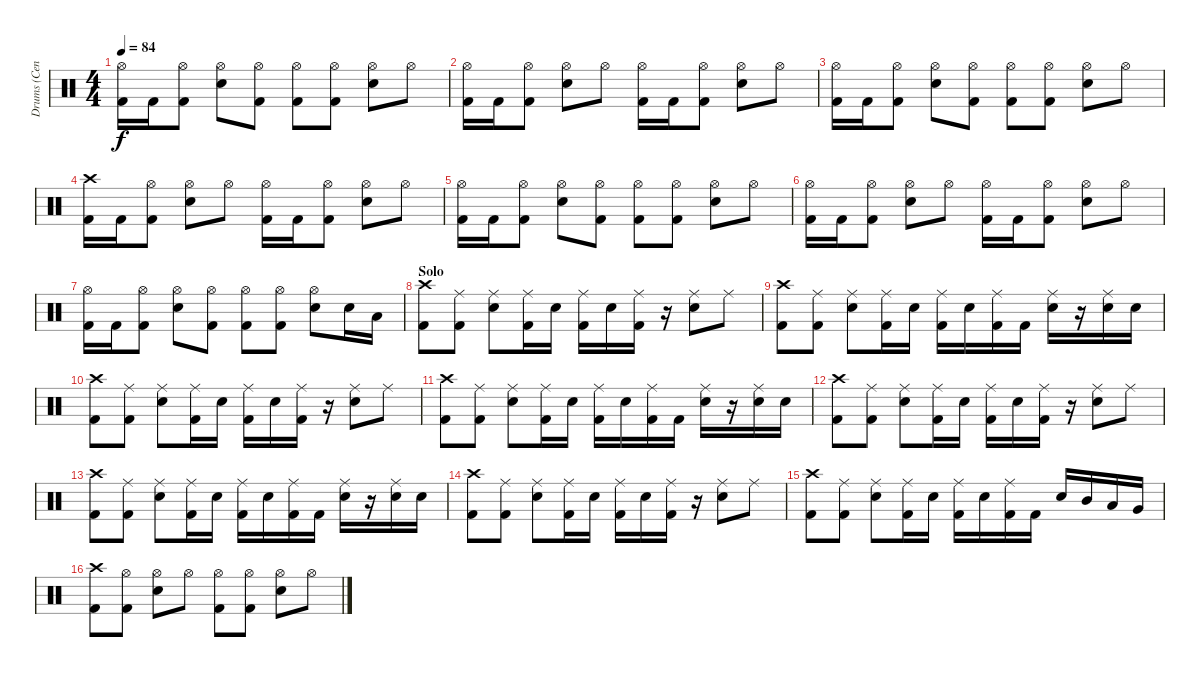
\track ("Drums (Cenk)" "Drums (Cen") {instrument percussion}
\staff {score}
\articulation defaults
\ts (4 4)
\tempo 84
\clef neutral
\ks c
("Hi-Hat (open)" "Kick (hit) 2").16{dy f} "Kick (hit) 2".16 ("Hi-Hat (open)" "Kick (hit) 2").8 ("Hi-Hat (open)" "Snare (hit) 2").8 ("Hi-Hat (open)" "Kick (hit) 2").8 ("Hi-Hat (open)" "Kick (hit) 2").8 ("Hi-Hat (open)" "Kick (hit) 2").8 ("Hi-Hat (open)" "Snare (hit) 2").8 "Hi-Hat (open)".8 |
("Hi-Hat (open)" "Kick (hit) 2").16 "Kick (hit) 2".16 ("Hi-Hat (open)" "Kick (hit) 2").8 ("Hi-Hat (open)" "Snare (hit) 2").8 "Hi-Hat (open)".8 ("Hi-Hat (open)" "Kick (hit) 2").16 "Kick (hit) 2".16 ("Hi-Hat (open)" "Kick (hit) 2").8 ("Hi-Hat (open)" "Snare (hit) 2").8 "Hi-Hat (open)".8 |
("Hi-Hat (open)" "Kick (hit) 2").16 "Kick (hit) 2".16 ("Hi-Hat (open)" "Kick (hit) 2").8 ("Hi-Hat (open)" "Snare (hit) 2").8 ("Hi-Hat (open)" "Kick (hit) 2").8 ("Hi-Hat (open)" "Kick (hit) 2").8 ("Hi-Hat (open)" "Kick (hit) 2").8 ("Hi-Hat (open)" "Snare (hit) 2").8 "Hi-Hat (open)".8 |
("Crash high (hit)" "Kick (hit) 2").16 "Kick (hit) 2".16 ("Hi-Hat (open)" "Kick (hit) 2").8 ("Hi-Hat (open)" "Snare (hit) 2").8 "Hi-Hat (open)".8 ("Hi-Hat (open)" "Kick (hit) 2").16 "Kick (hit) 2".16 ("Hi-Hat (open)" "Kick (hit) 2").8 ("Hi-Hat (open)" "Snare (hit) 2").8 "Hi-Hat (open)".8 |
("Hi-Hat (open)" "Kick (hit) 2").16 "Kick (hit) 2".16 ("Hi-Hat (open)" "Kick (hit) 2").8 ("Hi-Hat (open)" "Snare (hit) 2").8 ("Hi-Hat (open)" "Kick (hit) 2").8 ("Hi-Hat (open)" "Kick (hit) 2").8 ("Hi-Hat (open)" "Kick (hit) 2").8 ("Hi-Hat (open)" "Snare (hit) 2").8 "Hi-Hat (open)".8 |
("Hi-Hat (open)" "Kick (hit) 2").16 "Kick (hit) 2".16 ("Hi-Hat (open)" "Kick (hit) 2").8 ("Hi-Hat (open)" "Snare (hit) 2").8 "Hi-Hat (open)".8 ("Hi-Hat (open)" "Kick (hit) 2").16 "Kick (hit) 2".16 ("Hi-Hat (open)" "Kick (hit) 2").8 ("Hi-Hat (open)" "Snare (hit) 2").8 "Hi-Hat (open)".8 |
("Hi-Hat (open)" "Kick (hit) 2").16 "Kick (hit) 2".16 ("Hi-Hat (open)" "Kick (hit) 2").8 ("Hi-Hat (open)" "Snare (hit) 2").8 ("Hi-Hat (open)" "Kick (hit) 2").8 ("Hi-Hat (open)" "Kick (hit) 2").8 ("Hi-Hat (open)" "Kick (hit) 2").8 ("Hi-Hat (open)" "Snare (hit) 2").8 "Snare (hit) 2".16 "Low Tom (hit)".16 |
\section ("" "Solo")
("Crash high (hit)" "Kick (hit) 2").8 ("Ride (middle)" "Kick (hit) 2").8 ("Ride (middle)" "Snare (hit) 2").8 ("Ride (middle)" "Kick (hit) 2").16 "Snare (hit) 2".16 ("Ride (middle)" "Kick (hit) 2").16 "Snare (hit) 2".16 ("Ride (middle)" "Kick (hit) 2").16 r.16 ("Ride (middle)" "Snare (hit) 2").8 "Ride (middle)".8 |
("Crash high (hit)" "Kick (hit) 2").8 ("Ride (middle)" "Kick (hit) 2").8 ("Ride (middle)" "Snare (hit) 2").8 ("Ride (middle)" "Kick (hit) 2").16 "Snare (hit) 2".16 ("Ride (middle)" "Kick (hit) 2").16 "Snare (hit) 2".16 ("Ride (middle)" "Kick (hit) 2").16 "Kick (hit) 2".16 ("Ride (middle)" "Snare (hit) 2").16 r.16 ("Ride (middle)" "Snare (hit) 2").16 "Snare (hit) 2".16 |
("Crash high (hit)" "Kick (hit) 2").8 ("Ride (middle)" "Kick (hit) 2").8 ("Ride (middle)" "Snare (hit) 2").8 ("Ride (middle)" "Kick (hit) 2").16 "Snare (hit) 2".16 ("Ride (middle)" "Kick (hit) 2").16 "Snare (hit) 2".16 ("Ride (middle)" "Kick (hit) 2").16 r.16 ("Ride (middle)" "Snare (hit) 2").8 "Ride (middle)".8 |
("Crash high (hit)" "Kick (hit) 2").8 ("Ride (middle)" "Kick (hit) 2").8 ("Ride (middle)" "Snare (hit) 2").8 ("Ride (middle)" "Kick (hit) 2").16 "Snare (hit) 2".16 ("Ride (middle)" "Kick (hit) 2").16 "Snare (hit) 2".16 ("Ride (middle)" "Kick (hit) 2").16 "Kick (hit) 2".16 ("Ride (middle)" "Snare (hit) 2").16 r.16 ("Ride (middle)" "Snare (hit) 2").16 "Snare (hit) 2".16 |
("Crash high (hit)" "Kick (hit) 2").8 ("Ride (middle)" "Kick (hit) 2").8 ("Ride (middle)" "Snare (hit) 2").8 ("Ride (middle)" "Kick (hit) 2").16 "Snare (hit) 2".16 ("Ride (middle)" "Kick (hit) 2").16 "Snare (hit) 2".16 ("Ride (middle)" "Kick (hit) 2").16 r.16 ("Ride (middle)" "Snare (hit) 2").8 "Ride (middle)".8 |
("Crash high (hit)" "Kick (hit) 2").8 ("Ride (middle)" "Kick (hit) 2").8 ("Ride (middle)" "Snare (hit) 2").8 ("Ride (middle)" "Kick (hit) 2").16 "Snare (hit) 2".16 ("Ride (middle)" "Kick (hit) 2").16 "Snare (hit) 2".16 ("Ride (middle)" "Kick (hit) 2").16 "Kick (hit) 2".16 ("Ride (middle)" "Snare (hit) 2").16 r.16 ("Ride (middle)" "Snare (hit) 2").16 "Snare (hit) 2".16 |
("Crash high (hit)" "Kick (hit) 2").8 ("Ride (middle)" "Kick (hit) 2").8 ("Ride (middle)" "Snare (hit) 2").8 ("Ride (middle)" "Kick (hit) 2").16 "Snare (hit) 2".16 ("Ride (middle)" "Kick (hit) 2").16 "Snare (hit) 2".16 ("Ride (middle)" "Kick (hit) 2").16 r.16 ("Ride (middle)" "Snare (hit) 2").8 "Ride (middle)".8 |
("Crash high (hit)" "Kick (hit) 2").8 ("Ride (middle)" "Kick (hit) 2").8 ("Ride (middle)" "Snare (hit) 2").8 ("Ride (middle)" "Kick (hit) 2").16 "Snare (hit) 2".16 ("Ride (middle)" "Kick (hit) 2").16 "Snare (hit) 2".16 ("Ride (middle)" "Kick (hit) 2").16 "Kick (hit) 2".16 "Snare (hit) 2".16 "Mid Tom (hit)".16 "Low Tom (hit)".16 "Very Low Tom (hit)".16 |
("Crash high (hit)" "Kick (hit) 2").8 ("Hi-Hat (open)" "Kick (hit) 2").8 ("Hi-Hat (open)" "Snare (hit) 2").8 "Hi-Hat (open)".8 ("Hi-Hat (open)" "Kick (hit) 2").8 ("Hi-Hat (open)" "Kick (hit) 2").8 ("Hi-Hat (open)" "Snare (hit) 2").8 "Hi-Hat (open)".8
